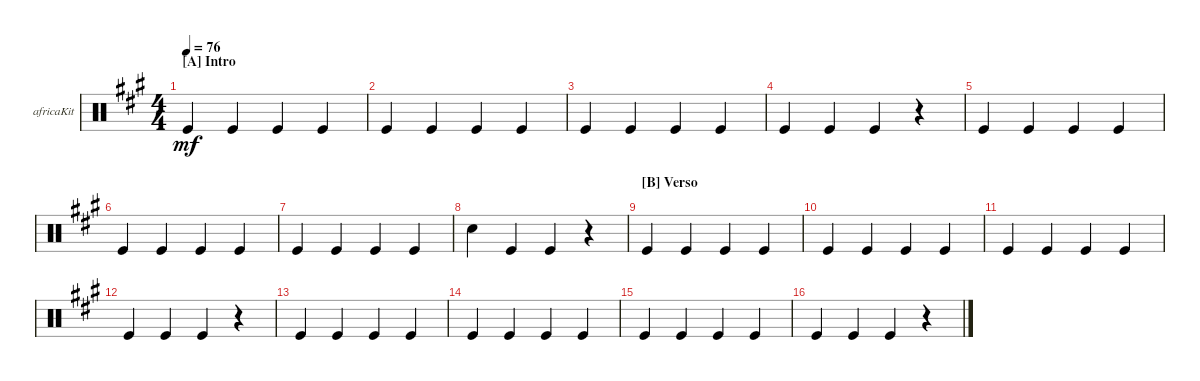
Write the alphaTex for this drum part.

\defaultSystemsLayout 4
\bracketExtendMode groupsimilarinstruments
\firstSystemTrackNameOrientation horizontal
\otherSystemsTrackNameOrientation horizontal
\track ("Kit-Africa" "africaKit") {instrument percussion}
\staff {score}
\articulation defaults
\ts (4 4)
\section ("A" "Intro")
\tempo 76
\clef neutral
\scale
0.690217
\ks a "Kick (hit)".4{dy mf} "Kick (hit)".4 "Kick (hit)".4 "Kick (hit)".4
|
\scale
0.309783 "Kick (hit)".4 "Kick (hit)".4 "Kick (hit)".4 "Kick (hit)".4 |
\scale
0.5 "Kick (hit)".4 "Kick (hit)".4 "Kick (hit)".4 "Kick (hit)".4 |
\scale
0.5 "Kick (hit)".4 "Kick (hit)".4 "Kick (hit)".4 r.4 |
\scale
0.5 "Kick (hit)".4 "Kick (hit)".4 "Kick (hit)".4 "Kick (hit)".4 |
\scale
0.5 "Kick (hit)".4 "Kick (hit)".4 "Kick (hit)".4 "Kick (hit)".4 |
\scale
0.5 "Kick (hit)".4 "Kick (hit)".4 "Kick (hit)".4 "Kick (hit)".4 |
\scale
0.5 "Snare (hit) 2".4 "Kick (hit)".4 "Kick (hit)".4 r.4 |
\section ("B" "Verso")
\scale
0.5 "Kick (hit)".4 "Kick (hit)".4 "Kick (hit)".4 "Kick (hit)".4 |
\scale
0.5 "Kick (hit)".4 "Kick (hit)".4 "Kick (hit)".4 "Kick (hit)".4 |
\scale
0.5 "Kick (hit)".4 "Kick (hit)".4 "Kick (hit)".4 "Kick (hit)".4 |
\scale
0.5 "Kick (hit)".4 "Kick (hit)".4 "Kick (hit)".4 r.4 |
\scale
0.5 "Kick (hit)".4 "Kick (hit)".4 "Kick (hit)".4 "Kick (hit)".4 |
\scale
0.5 "Kick (hit)".4 "Kick (hit)".4 "Kick (hit)".4 "Kick (hit)".4 |
\scale
0.5 "Kick (hit)".4 "Kick (hit)".4 "Kick (hit)".4 "Kick (hit)".4 |
\scale
0.5 "Kick (hit)".4 "Kick (hit)".4 "Kick (hit)".4 r.4
